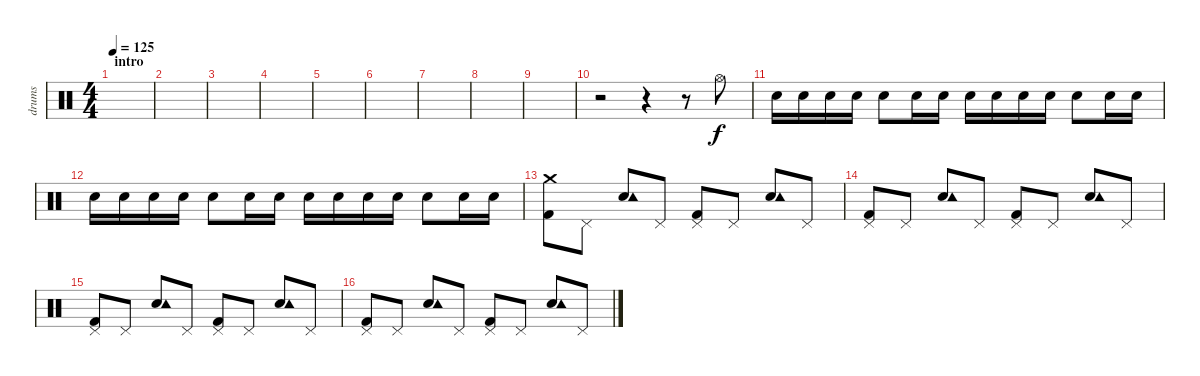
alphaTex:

\track ("drums" "drums") {instrument percussion}
\staff {score}
\articulation defaults
\ts (4 4)
\section ("" "intro")
\tempo 125
\clef neutral
\ks c
|
|
|
|
|
|
|
|
|
r.2 r.4 r.8 "Hi-Hat (open)".8 |
"Electric Snare (hit)".16 "Electric Snare (hit)".16 "Electric Snare (hit)".16 "Electric Snare (hit)".16 "Electric Snare (hit)".8 "Electric Snare (hit)".16 "Electric Snare (hit)".16 "Electric Snare (hit)".16 "Electric Snare (hit)".16 "Electric Snare (hit)".16 "Electric Snare (hit)".16 "Electric Snare (hit)".8 "Electric Snare (hit)".16 "Electric Snare (hit)".16 |
"Electric Snare (hit)".16 "Electric Snare (hit)".16 "Electric Snare (hit)".16 "Electric Snare (hit)".16 "Electric Snare (hit)".8 "Electric Snare (hit)".16 "Electric Snare (hit)".16 "Electric Snare (hit)".16 "Electric Snare (hit)".16 "Electric Snare (hit)".16 "Electric Snare (hit)".16 "Electric Snare (hit)".8 "Electric Snare (hit)".16 "Electric Snare (hit)".16 |
("Kick (hit) 2" "Crash medium (hit)").8 "Pedal Hi-Hat (hit)".8 ("Electric Snare (hit)" "Tambourine (hit)").8 "Pedal Hi-Hat (hit)".8 ("Kick (hit) 2" "Pedal Hi-Hat (hit)").8 "Pedal Hi-Hat (hit)".8 ("Electric Snare (hit)" "Tambourine (hit)").8 "Pedal Hi-Hat (hit)".8 |
("Kick (hit) 2" "Pedal Hi-Hat (hit)").8 "Pedal Hi-Hat (hit)".8 ("Electric Snare (hit)" "Tambourine (hit)").8 "Pedal Hi-Hat (hit)".8 ("Kick (hit) 2" "Pedal Hi-Hat (hit)").8 "Pedal Hi-Hat (hit)".8 ("Electric Snare (hit)" "Tambourine (hit)").8 "Pedal Hi-Hat (hit)".8 |
("Kick (hit) 2" "Pedal Hi-Hat (hit)").8 "Pedal Hi-Hat (hit)".8 ("Electric Snare (hit)" "Tambourine (hit)").8 "Pedal Hi-Hat (hit)".8 ("Kick (hit) 2" "Pedal Hi-Hat (hit)").8 "Pedal Hi-Hat (hit)".8 ("Electric Snare (hit)" "Tambourine (hit)").8 "Pedal Hi-Hat (hit)".8 |
("Kick (hit) 2" "Pedal Hi-Hat (hit)").8 "Pedal Hi-Hat (hit)".8 ("Electric Snare (hit)" "Tambourine (hit)").8 "Pedal Hi-Hat (hit)".8 ("Kick (hit) 2" "Pedal Hi-Hat (hit)").8 "Pedal Hi-Hat (hit)".8 ("Electric Snare (hit)" "Tambourine (hit)").8 "Pedal Hi-Hat (hit)".8
